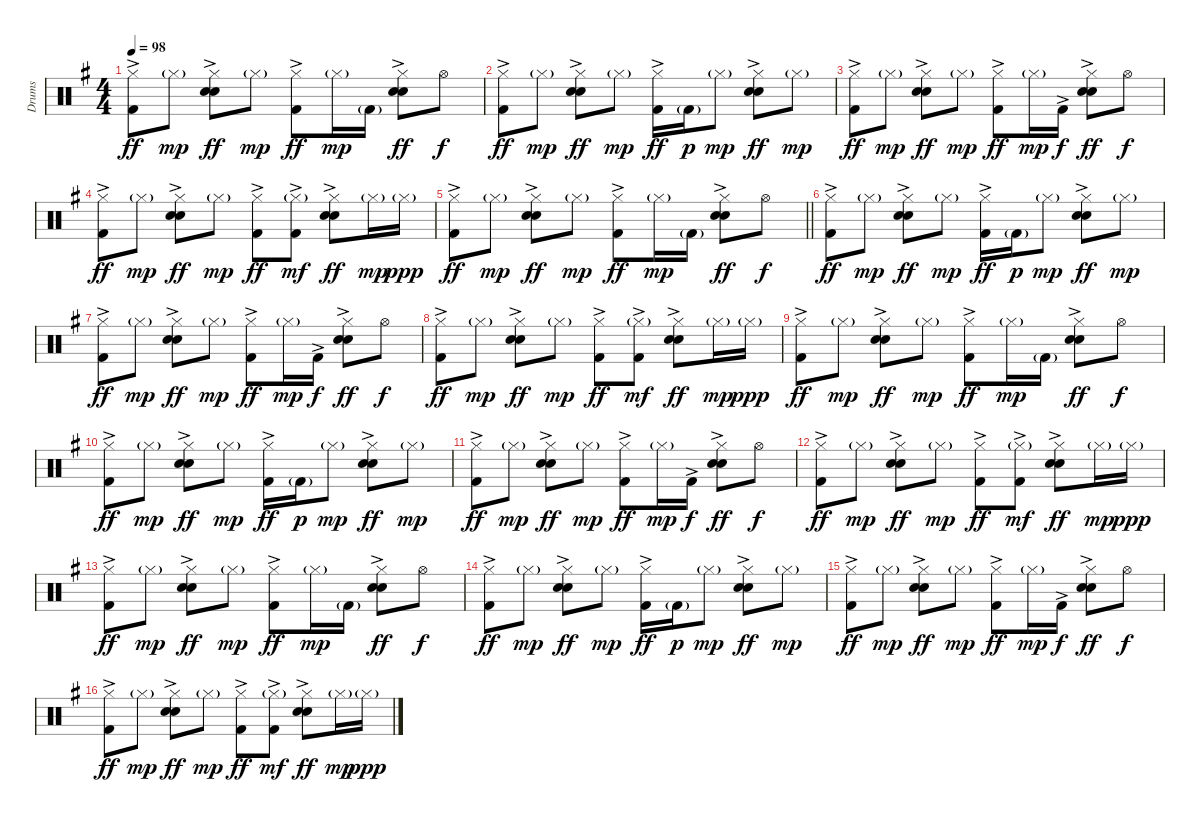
\track ("Drums" "Drums") {instrument percussion}
\staff {score}
\articulation defaults
\ts (4 4)
\tempo 98
\clef neutral
\ks g
("Hi-Hat (closed)" "Kick (hit) 2"{ac}).8{dy ff} "Hi-Hat (closed)"{g}.8{dy mp} ("Hi-Hat (closed)" "Hand Clap (hit)" "Snare (hit) 2"{ac}).8{dy ff} "Hi-Hat (closed)"{g}.8{dy mp} ("Hi-Hat (closed)" "Kick (hit) 2"{ac}).8{dy ff} "Hi-Hat (closed)"{g}.16{dy mp} "Kick (hit) 2"{g}.16 ("Hi-Hat (closed)" "Hand Clap (hit)" "Snare (hit) 2"{ac}).8{dy ff} "Hi-Hat (open)".8{dy f} |
("Hi-Hat (closed)" "Kick (hit) 2"{ac}).8{dy ff} "Hi-Hat (closed)"{g}.8{dy mp} ("Hi-Hat (closed)" "Hand Clap (hit)" "Snare (hit) 2"{ac}).8{dy ff} "Hi-Hat (closed)"{g}.8{dy mp} ("Hi-Hat (closed)" "Kick (hit) 2"{ac}).16{dy ff} "Kick (hit) 2"{g}.16{dy p} "Hi-Hat (closed)"{g}.8{dy mp} ("Hi-Hat (closed)" "Hand Clap (hit)" "Snare (hit) 2"{ac}).8{dy ff} "Hi-Hat (closed)"{g}.8{dy mp} |
("Hi-Hat (closed)" "Kick (hit) 2"{ac}).8{dy ff} "Hi-Hat (closed)"{g}.8{dy mp} ("Hi-Hat (closed)" "Hand Clap (hit)" "Snare (hit) 2"{ac}).8{dy ff} "Hi-Hat (closed)"{g}.8{dy mp} ("Hi-Hat (closed)" "Kick (hit) 2"{ac}).8{dy ff} "Hi-Hat (closed)"{g}.16{dy mp} "Kick (hit) 2"{ac}.16{dy f} ("Hi-Hat (closed)" "Hand Clap (hit)" "Snare (hit) 2"{ac}).8{dy ff} "Hi-Hat (open)".8{dy f} |
("Hi-Hat (closed)" "Kick (hit) 2"{ac}).8{dy ff} "Hi-Hat (closed)"{g}.8{dy mp} ("Hi-Hat (closed)" "Hand Clap (hit)" "Snare (hit) 2"{ac}).8{dy ff} "Hi-Hat (closed)"{g}.8{dy mp} ("Hi-Hat (closed)" "Kick (hit) 2"{ac}).8{dy ff} ("Hi-Hat (closed)"{g} "Kick (hit) 2"{ac}).8{dy mf} ("Hi-Hat (closed)" "Hand Clap (hit)" "Snare (hit) 2"{ac}).8{dy ff} "Hi-Hat (closed)"{g}.16{dy mp} "Hi-Hat (closed)"{g}.16{dy ppp} |
\barLineRight lightlight
("Hi-Hat (closed)" "Kick (hit) 2"{ac}).8{dy ff} "Hi-Hat (closed)"{g}.8{dy mp} ("Hi-Hat (closed)" "Hand Clap (hit)" "Snare (hit) 2"{ac}).8{dy ff} "Hi-Hat (closed)"{g}.8{dy mp} ("Hi-Hat (closed)" "Kick (hit) 2"{ac}).8{dy ff} "Hi-Hat (closed)"{g}.16{dy mp} "Kick (hit) 2"{g}.16 ("Hi-Hat (closed)" "Hand Clap (hit)" "Snare (hit) 2"{ac}).8{dy ff} "Hi-Hat (open)".8{dy f} |
("Hi-Hat (closed)" "Kick (hit) 2"{ac}).8{dy ff} "Hi-Hat (closed)"{g}.8{dy mp} ("Hi-Hat (closed)" "Hand Clap (hit)" "Snare (hit) 2"{ac}).8{dy ff} "Hi-Hat (closed)"{g}.8{dy mp} ("Hi-Hat (closed)" "Kick (hit) 2"{ac}).16{dy ff} "Kick (hit) 2"{g}.16{dy p} "Hi-Hat (closed)"{g}.8{dy mp} ("Hi-Hat (closed)" "Hand Clap (hit)" "Snare (hit) 2"{ac}).8{dy ff} "Hi-Hat (closed)"{g}.8{dy mp} |
("Hi-Hat (closed)" "Kick (hit) 2"{ac}).8{dy ff} "Hi-Hat (closed)"{g}.8{dy mp} ("Hi-Hat (closed)" "Hand Clap (hit)" "Snare (hit) 2"{ac}).8{dy ff} "Hi-Hat (closed)"{g}.8{dy mp} ("Hi-Hat (closed)" "Kick (hit) 2"{ac}).8{dy ff} "Hi-Hat (closed)"{g}.16{dy mp} "Kick (hit) 2"{ac}.16{dy f} ("Hi-Hat (closed)" "Hand Clap (hit)" "Snare (hit) 2"{ac}).8{dy ff} "Hi-Hat (open)".8{dy f} |
("Hi-Hat (closed)" "Kick (hit) 2"{ac}).8{dy ff} "Hi-Hat (closed)"{g}.8{dy mp} ("Hi-Hat (closed)" "Hand Clap (hit)" "Snare (hit) 2"{ac}).8{dy ff} "Hi-Hat (closed)"{g}.8{dy mp} ("Hi-Hat (closed)" "Kick (hit) 2"{ac}).8{dy ff} ("Hi-Hat (closed)"{g} "Kick (hit) 2"{ac}).8{dy mf} ("Hi-Hat (closed)" "Hand Clap (hit)" "Snare (hit) 2"{ac}).8{dy ff} "Hi-Hat (closed)"{g}.16{dy mp} "Hi-Hat (closed)"{g}.16{dy ppp} |
("Hi-Hat (closed)" "Kick (hit) 2"{ac}).8{dy ff} "Hi-Hat (closed)"{g}.8{dy mp} ("Hi-Hat (closed)" "Hand Clap (hit)" "Snare (hit) 2"{ac}).8{dy ff} "Hi-Hat (closed)"{g}.8{dy mp} ("Hi-Hat (closed)" "Kick (hit) 2"{ac}).8{dy ff} "Hi-Hat (closed)"{g}.16{dy mp} "Kick (hit) 2"{g}.16 ("Hi-Hat (closed)" "Hand Clap (hit)" "Snare (hit) 2"{ac}).8{dy ff} "Hi-Hat (open)".8{dy f} |
("Hi-Hat (closed)" "Kick (hit) 2"{ac}).8{dy ff} "Hi-Hat (closed)"{g}.8{dy mp} ("Hi-Hat (closed)" "Hand Clap (hit)" "Snare (hit) 2"{ac}).8{dy ff} "Hi-Hat (closed)"{g}.8{dy mp} ("Hi-Hat (closed)" "Kick (hit) 2"{ac}).16{dy ff} "Kick (hit) 2"{g}.16{dy p} "Hi-Hat (closed)"{g}.8{dy mp} ("Hi-Hat (closed)" "Hand Clap (hit)" "Snare (hit) 2"{ac}).8{dy ff} "Hi-Hat (closed)"{g}.8{dy mp} |
("Hi-Hat (closed)" "Kick (hit) 2"{ac}).8{dy ff} "Hi-Hat (closed)"{g}.8{dy mp} ("Hi-Hat (closed)" "Hand Clap (hit)" "Snare (hit) 2"{ac}).8{dy ff} "Hi-Hat (closed)"{g}.8{dy mp} ("Hi-Hat (closed)" "Kick (hit) 2"{ac}).8{dy ff} "Hi-Hat (closed)"{g}.16{dy mp} "Kick (hit) 2"{ac}.16{dy f} ("Hi-Hat (closed)" "Hand Clap (hit)" "Snare (hit) 2"{ac}).8{dy ff} "Hi-Hat (open)".8{dy f} |
("Hi-Hat (closed)" "Kick (hit) 2"{ac}).8{dy ff} "Hi-Hat (closed)"{g}.8{dy mp} ("Hi-Hat (closed)" "Hand Clap (hit)" "Snare (hit) 2"{ac}).8{dy ff} "Hi-Hat (closed)"{g}.8{dy mp} ("Hi-Hat (closed)" "Kick (hit) 2"{ac}).8{dy ff} ("Hi-Hat (closed)"{g} "Kick (hit) 2"{ac}).8{dy mf} ("Hi-Hat (closed)" "Hand Clap (hit)" "Snare (hit) 2"{ac}).8{dy ff} "Hi-Hat (closed)"{g}.16{dy mp} "Hi-Hat (closed)"{g}.16{dy ppp} |
("Hi-Hat (closed)" "Kick (hit) 2"{ac}).8{dy ff} "Hi-Hat (closed)"{g}.8{dy mp} ("Hi-Hat (closed)" "Hand Clap (hit)" "Snare (hit) 2"{ac}).8{dy ff} "Hi-Hat (closed)"{g}.8{dy mp} ("Hi-Hat (closed)" "Kick (hit) 2"{ac}).8{dy ff} "Hi-Hat (closed)"{g}.16{dy mp} "Kick (hit) 2"{g}.16 ("Hi-Hat (closed)" "Hand Clap (hit)" "Snare (hit) 2"{ac}).8{dy ff} "Hi-Hat (open)".8{dy f} |
("Hi-Hat (closed)" "Kick (hit) 2"{ac}).8{dy ff} "Hi-Hat (closed)"{g}.8{dy mp} ("Hi-Hat (closed)" "Hand Clap (hit)" "Snare (hit) 2"{ac}).8{dy ff} "Hi-Hat (closed)"{g}.8{dy mp} ("Hi-Hat (closed)" "Kick (hit) 2"{ac}).16{dy ff} "Kick (hit) 2"{g}.16{dy p} "Hi-Hat (closed)"{g}.8{dy mp} ("Hi-Hat (closed)" "Hand Clap (hit)" "Snare (hit) 2"{ac}).8{dy ff} "Hi-Hat (closed)"{g}.8{dy mp} |
("Hi-Hat (closed)" "Kick (hit) 2"{ac}).8{dy ff} "Hi-Hat (closed)"{g}.8{dy mp} ("Hi-Hat (closed)" "Hand Clap (hit)" "Snare (hit) 2"{ac}).8{dy ff} "Hi-Hat (closed)"{g}.8{dy mp} ("Hi-Hat (closed)" "Kick (hit) 2"{ac}).8{dy ff} "Hi-Hat (closed)"{g}.16{dy mp} "Kick (hit) 2"{ac}.16{dy f} ("Hi-Hat (closed)" "Hand Clap (hit)" "Snare (hit) 2"{ac}).8{dy ff} "Hi-Hat (open)".8{dy f} |
("Hi-Hat (closed)" "Kick (hit) 2"{ac}).8{dy ff} "Hi-Hat (closed)"{g}.8{dy mp} ("Hi-Hat (closed)" "Hand Clap (hit)" "Snare (hit) 2"{ac}).8{dy ff} "Hi-Hat (closed)"{g}.8{dy mp} ("Hi-Hat (closed)" "Kick (hit) 2"{ac}).8{dy ff} ("Hi-Hat (closed)"{g} "Kick (hit) 2"{ac}).8{dy mf} ("Hi-Hat (closed)" "Hand Clap (hit)" "Snare (hit) 2"{ac}).8{dy ff} "Hi-Hat (closed)"{g}.16{dy mp} "Hi-Hat (closed)"{g}.16{dy ppp}
